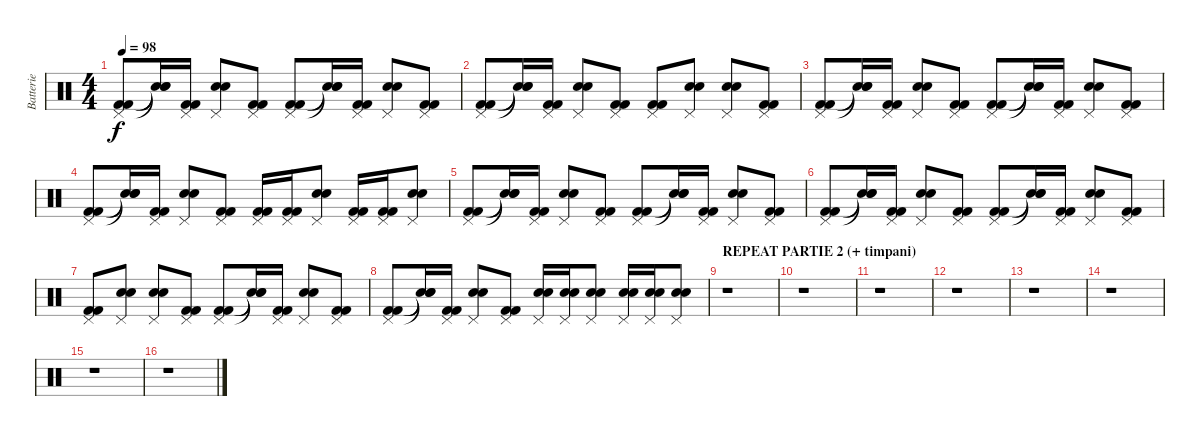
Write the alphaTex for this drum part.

\track ("Batterie" "Batterie") {instrument percussion}
\staff {score}
\articulation defaults
\ts (4 4)
\tempo 98
\clef neutral
\ks c
("Pedal Hi-Hat (hit)" "Kick (hit) 2" "Kick (hit) 2").8{dy f} ("Snare (hit)"{t} "Snare (hit)"{t} "Snare (hit)"{t}).16 ("Pedal Hi-Hat (hit)" "Kick (hit) 2" "Kick (hit) 2").16 ("Pedal Hi-Hat (hit)" "Electric Snare (hit)" "Electric Snare (hit)").8 ("Pedal Hi-Hat (hit)" "Kick (hit) 2" "Kick (hit) 2").8 ("Pedal Hi-Hat (hit)" "Kick (hit) 2" "Kick (hit) 2").8 ("Snare (hit)"{t} "Snare (hit)"{t} "Snare (hit)"{t}).16 ("Pedal Hi-Hat (hit)" "Kick (hit) 2" "Kick (hit) 2").16 ("Pedal Hi-Hat (hit)" "Electric Snare (hit)" "Electric Snare (hit)").8 ("Pedal Hi-Hat (hit)" "Kick (hit) 2" "Kick (hit) 2").8 |
("Pedal Hi-Hat (hit)" "Kick (hit) 2" "Kick (hit) 2").8 ("Snare (hit)"{t} "Snare (hit)"{t} "Snare (hit)"{t}).16 ("Pedal Hi-Hat (hit)" "Kick (hit) 2" "Kick (hit) 2").16 ("Pedal Hi-Hat (hit)" "Electric Snare (hit)" "Electric Snare (hit)").8 ("Pedal Hi-Hat (hit)" "Kick (hit) 2" "Kick (hit) 2").8 ("Pedal Hi-Hat (hit)" "Kick (hit) 2" "Kick (hit) 2").8 ("Pedal Hi-Hat (hit)" "Electric Snare (hit)" "Electric Snare (hit)").8 ("Pedal Hi-Hat (hit)" "Electric Snare (hit)" "Electric Snare (hit)").8 ("Pedal Hi-Hat (hit)" "Kick (hit) 2" "Kick (hit) 2").8 |
("Pedal Hi-Hat (hit)" "Kick (hit) 2" "Kick (hit) 2").8 ("Snare (hit)"{t} "Snare (hit)"{t} "Snare (hit)"{t}).16 ("Pedal Hi-Hat (hit)" "Kick (hit) 2" "Kick (hit) 2").16 ("Pedal Hi-Hat (hit)" "Electric Snare (hit)" "Electric Snare (hit)").8 ("Pedal Hi-Hat (hit)" "Kick (hit) 2" "Kick (hit) 2").8 ("Pedal Hi-Hat (hit)" "Kick (hit) 2" "Kick (hit) 2").8 ("Snare (hit)"{t} "Snare (hit)"{t} "Snare (hit)"{t}).16 ("Pedal Hi-Hat (hit)" "Kick (hit) 2" "Kick (hit) 2").16 ("Pedal Hi-Hat (hit)" "Electric Snare (hit)" "Electric Snare (hit)").8 ("Pedal Hi-Hat (hit)" "Kick (hit) 2" "Kick (hit) 2").8 |
("Pedal Hi-Hat (hit)" "Kick (hit) 2" "Kick (hit) 2").8 ("Snare (hit)"{t} "Snare (hit)"{t} "Snare (hit)"{t}).16 ("Pedal Hi-Hat (hit)" "Kick (hit) 2" "Kick (hit) 2").16 ("Pedal Hi-Hat (hit)" "Electric Snare (hit)" "Electric Snare (hit)").8 ("Pedal Hi-Hat (hit)" "Kick (hit) 2" "Kick (hit) 2").8 ("Pedal Hi-Hat (hit)" "Kick (hit) 2" "Kick (hit) 2").16 ("Pedal Hi-Hat (hit)" "Kick (hit) 2" "Kick (hit) 2").16 ("Pedal Hi-Hat (hit)" "Electric Snare (hit)" "Electric Snare (hit)").8 ("Pedal Hi-Hat (hit)" "Kick (hit) 2" "Kick (hit) 2").16 ("Pedal Hi-Hat (hit)" "Kick (hit) 2" "Kick (hit) 2").16 ("Pedal Hi-Hat (hit)" "Electric Snare (hit)" "Electric Snare (hit)").8 |
("Pedal Hi-Hat (hit)" "Kick (hit) 2" "Kick (hit) 2").8 ("Snare (hit)"{t} "Snare (hit)"{t} "Snare (hit)"{t}).16 ("Pedal Hi-Hat (hit)" "Kick (hit) 2" "Kick (hit) 2").16 ("Pedal Hi-Hat (hit)" "Electric Snare (hit)" "Electric Snare (hit)").8 ("Pedal Hi-Hat (hit)" "Kick (hit) 2" "Kick (hit) 2").8 ("Pedal Hi-Hat (hit)" "Kick (hit) 2" "Kick (hit) 2").8 ("Snare (hit)"{t} "Snare (hit)"{t} "Snare (hit)"{t}).16 ("Pedal Hi-Hat (hit)" "Kick (hit) 2" "Kick (hit) 2").16 ("Pedal Hi-Hat (hit)" "Electric Snare (hit)" "Electric Snare (hit)").8 ("Pedal Hi-Hat (hit)" "Kick (hit) 2" "Kick (hit) 2").8 |
("Pedal Hi-Hat (hit)" "Kick (hit) 2" "Kick (hit) 2").8 ("Snare (hit)"{t} "Snare (hit)"{t} "Snare (hit)"{t}).16 ("Pedal Hi-Hat (hit)" "Kick (hit) 2" "Kick (hit) 2").16 ("Pedal Hi-Hat (hit)" "Electric Snare (hit)" "Electric Snare (hit)").8 ("Pedal Hi-Hat (hit)" "Kick (hit) 2" "Kick (hit) 2").8 ("Pedal Hi-Hat (hit)" "Kick (hit) 2" "Kick (hit) 2").8 ("Snare (hit)"{t} "Snare (hit)"{t} "Snare (hit)"{t}).16 ("Pedal Hi-Hat (hit)" "Kick (hit) 2" "Kick (hit) 2").16 ("Pedal Hi-Hat (hit)" "Electric Snare (hit)" "Electric Snare (hit)").8 ("Pedal Hi-Hat (hit)" "Kick (hit) 2" "Kick (hit) 2").8 |
("Pedal Hi-Hat (hit)" "Kick (hit) 2" "Kick (hit) 2").8 ("Pedal Hi-Hat (hit)" "Electric Snare (hit)" "Electric Snare (hit)").8 ("Pedal Hi-Hat (hit)" "Electric Snare (hit)" "Electric Snare (hit)").8 ("Pedal Hi-Hat (hit)" "Kick (hit) 2" "Kick (hit) 2").8 ("Pedal Hi-Hat (hit)" "Kick (hit) 2" "Kick (hit) 2").8 ("Snare (hit)"{t} "Snare (hit)"{t} "Snare (hit)"{t}).16 ("Pedal Hi-Hat (hit)" "Kick (hit) 2" "Kick (hit) 2").16 ("Pedal Hi-Hat (hit)" "Electric Snare (hit)" "Electric Snare (hit)").8 ("Pedal Hi-Hat (hit)" "Kick (hit) 2" "Kick (hit) 2").8 |
("Pedal Hi-Hat (hit)" "Kick (hit) 2" "Kick (hit) 2").8 ("Snare (hit)"{t} "Snare (hit)"{t} "Snare (hit)"{t}).16 ("Pedal Hi-Hat (hit)" "Kick (hit) 2" "Kick (hit) 2").16 ("Pedal Hi-Hat (hit)" "Electric Snare (hit)" "Electric Snare (hit)").8 ("Pedal Hi-Hat (hit)" "Kick (hit) 2" "Kick (hit) 2").8 ("Pedal Hi-Hat (hit)" "Electric Snare (hit)" "Electric Snare (hit)").16 ("Pedal Hi-Hat (hit)" "Electric Snare (hit)" "Electric Snare (hit)").16 ("Pedal Hi-Hat (hit)" "Electric Snare (hit)" "Electric Snare (hit)").8 ("Pedal Hi-Hat (hit)" "Electric Snare (hit)" "Electric Snare (hit)").16 ("Pedal Hi-Hat (hit)" "Electric Snare (hit)" "Electric Snare (hit)").16 ("Pedal Hi-Hat (hit)" "Electric Snare (hit)" "Electric Snare (hit)").8 |
\section ("" "REPEAT PARTIE 2 (+ timpani)")
r.1 |
r.1 |
r.1 |
r.1 |
r.1 |
r.1 |
r.1 |
r.1
